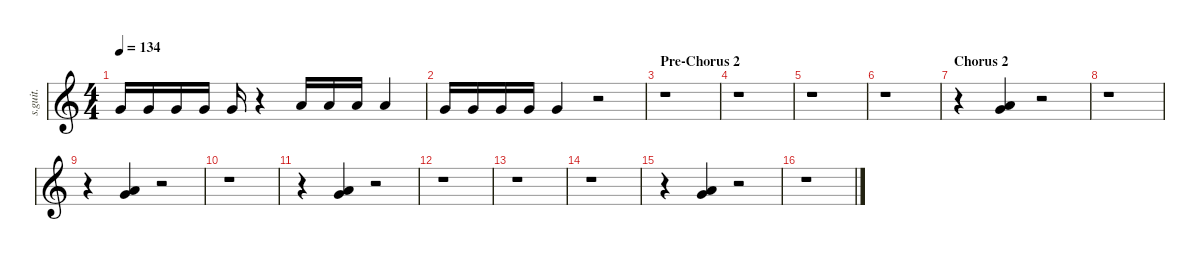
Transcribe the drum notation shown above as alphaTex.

\defaultSystemsLayout 4
\hideDynamics
\bracketExtendMode nobrackets
\track ("Chris Fehn" "s.guit.") {instrument percussion}
\staff {score}
\articulation defaults
\ts (4 4)
\tempo 134
\clef g2
\ks c "Very Low Tom (hit)".16{dy f} "Very Low Tom (hit)".16 "Very Low Tom (hit)".16 "Very Low Tom (hit)".16 "Very Low Tom (hit)".16
r.4 "Low Floor Tom (hit)".16 "Low Floor Tom (hit)".16 "Low Floor Tom (hit)".16 "Low Floor Tom (hit)".4 |
"Very Low Tom (hit)".16 "Very Low Tom (hit)".16 "Very Low Tom (hit)".16 "Very Low Tom (hit)".16 "Very Low Tom (hit)".4 r.2 |
\section ("" "Pre-Chorus 2")
r.1 |
r.1 |
r.1 |
r.1 |
\section ("" "Chorus 2")
r.4 ("Very Low Tom (hit)" "Low Floor Tom (hit)").4 r.2 |
r.1 |
r.4 ("Very Low Tom (hit)" "Low Floor Tom (hit)").4 r.2 |
r.1 |
r.4 ("Very Low Tom (hit)" "Low Floor Tom (hit)").4 r.2 |
r.1 |
r.1 |
r.1 |
r.4 ("Very Low Tom (hit)" "Low Floor Tom (hit)").4 r.2 |
r.1
